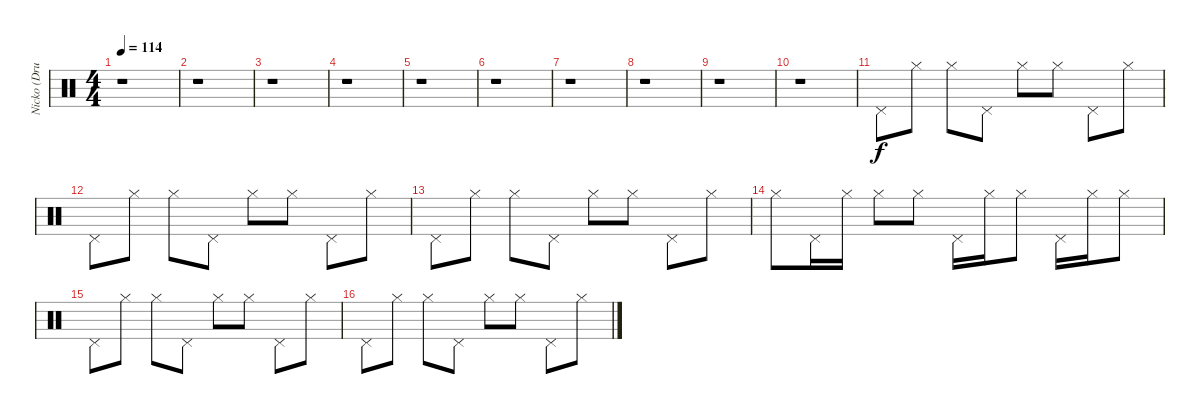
\track ("Nicko (Drums)" "Nicko (Dru") {instrument percussion}
\staff {score}
\articulation defaults
\ts (4 4)
\tempo 114
\clef neutral
\ks c
r.1{dy f} |
r.1 |
r.1 |
r.1 |
r.1 |
r.1 |
r.1 |
r.1 |
r.1 |
r.1 |
"Pedal Hi-Hat (hit)".8 "Hi-Hat (closed)".8 "Hi-Hat (closed)".8 "Pedal Hi-Hat (hit)".8 "Hi-Hat (closed)".8 "Hi-Hat (closed)".8 "Pedal Hi-Hat (hit)".8 "Hi-Hat (closed)".8 |
"Pedal Hi-Hat (hit)".8 "Hi-Hat (closed)".8 "Hi-Hat (closed)".8 "Pedal Hi-Hat (hit)".8 "Hi-Hat (closed)".8 "Hi-Hat (closed)".8 "Pedal Hi-Hat (hit)".8 "Hi-Hat (closed)".8 |
"Pedal Hi-Hat (hit)".8 "Hi-Hat (closed)".8 "Hi-Hat (closed)".8 "Pedal Hi-Hat (hit)".8 "Hi-Hat (closed)".8 "Hi-Hat (closed)".8 "Pedal Hi-Hat (hit)".8 "Hi-Hat (closed)".8 |
"Hi-Hat (closed)".8 "Pedal Hi-Hat (hit)".16 "Hi-Hat (closed)".16 "Hi-Hat (closed)".8 "Hi-Hat (closed)".8 "Pedal Hi-Hat (hit)".16 "Hi-Hat (closed)".16 "Hi-Hat (closed)".8 "Pedal Hi-Hat (hit)".16 "Hi-Hat (closed)".16 "Hi-Hat (closed)".8 |
"Pedal Hi-Hat (hit)".8 "Hi-Hat (closed)".8 "Hi-Hat (closed)".8 "Pedal Hi-Hat (hit)".8 "Hi-Hat (closed)".8 "Hi-Hat (closed)".8 "Pedal Hi-Hat (hit)".8 "Hi-Hat (closed)".8 |
"Pedal Hi-Hat (hit)".8 "Hi-Hat (closed)".8 "Hi-Hat (closed)".8 "Pedal Hi-Hat (hit)".8 "Hi-Hat (closed)".8 "Hi-Hat (closed)".8 "Pedal Hi-Hat (hit)".8 "Hi-Hat (closed)".8
